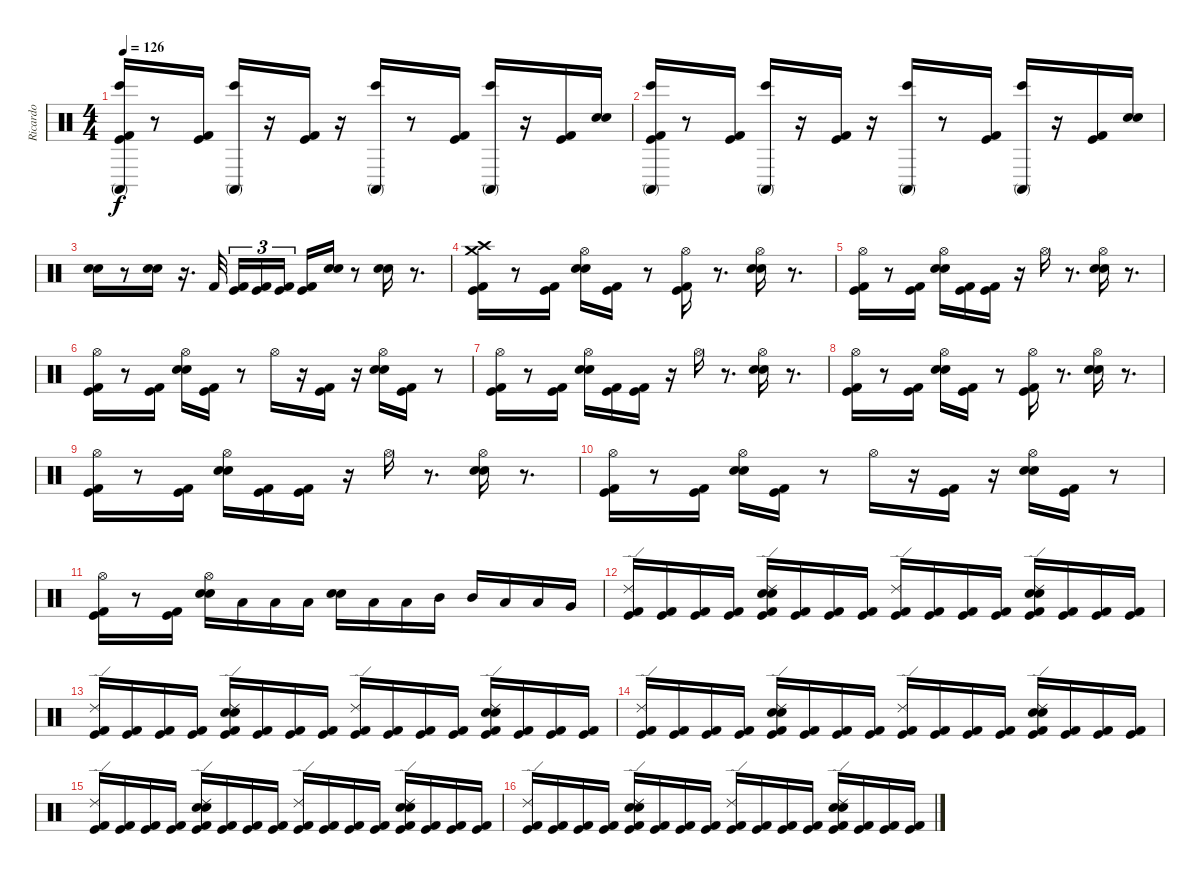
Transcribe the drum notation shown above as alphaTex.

\track ("Ricardo" "Ricardo") {instrument percussion}
\staff {score}
\articulation defaults
\ts (4 4)
\tempo 126
\clef neutral
\ks c
("Conga high (mute)" "Bongo High (hit)" "Kick (hit) 2" "Kick (hit)").16{dy f} r.8 ("Kick (hit) 2" "Kick (hit)").16 ("Conga high (mute)" "Bongo High (hit)").16 r.16 ("Kick (hit) 2" "Kick (hit)").16 r.16 ("Conga high (mute)" "Bongo High (hit)").16 r.8 ("Kick (hit) 2" "Kick (hit)").16 ("Conga high (mute)" "Bongo High (hit)").16 r.16 ("Kick (hit) 2" "Kick (hit)").16 ("Electric Snare (hit)" "Snare (hit) 2").16 |
("Conga high (mute)" "Bongo High (hit)" "Kick (hit) 2" "Kick (hit)").16 r.8 ("Kick (hit) 2" "Kick (hit)").16 ("Conga high (mute)" "Bongo High (hit)").16 r.16 ("Kick (hit) 2" "Kick (hit)").16 r.16 ("Conga high (mute)" "Bongo High (hit)").16 r.8 ("Kick (hit) 2" "Kick (hit)").16 ("Conga high (mute)" "Bongo High (hit)").16 r.16 ("Kick (hit) 2" "Kick (hit)").16 ("Electric Snare (hit)" "Snare (hit) 2").16 |
("Electric Snare (hit)" "Snare (hit) 2").16 r.8 ("Electric Snare (hit)" "Snare (hit) 2").16 r.16{d} "Kick (hit) 2".32 ("Kick (hit) 2" "Kick (hit)").16{tu (3 2)} ("Kick (hit) 2" "Kick (hit)").16{tu (3 2)} ("Kick (hit) 2" "Kick (hit)").16{tu (3 2)} ("Kick (hit) 2" "Kick (hit)").16 ("Electric Snare (hit)" "Snare (hit) 2").16 r.8 ("Electric Snare (hit)" "Snare (hit) 2").16 r.8{d} |
("Crash high (hit)" "Crash medium (hit)" "Kick (hit) 2" "Kick (hit)").16 r.8 ("Kick (hit) 2" "Kick (hit)").16 ("Hi-Hat (open)" "Electric Snare (hit)" "Snare (hit) 2").16 ("Kick (hit) 2" "Kick (hit)").16 r.8 ("Kick (hit) 2" "Kick (hit)" "Hi-Hat (open)").16 r.8{d} ("Electric Snare (hit)" "Snare (hit) 2" "Hi-Hat (open)").16 r.8{d} |
("Kick (hit) 2" "Hi-Hat (open)" "Kick (hit)").16 r.8 ("Kick (hit) 2" "Kick (hit)").16 ("Electric Snare (hit)" "Hi-Hat (open)" "Snare (hit) 2").16 ("Kick (hit) 2" "Kick (hit)").16 ("Kick (hit) 2" "Kick (hit)").16 r.16 "Hi-Hat (open)".16 r.8{d} ("Electric Snare (hit)" "Snare (hit) 2" "Hi-Hat (open)").16 r.8{d} |
("Hi-Hat (open)" "Kick (hit) 2" "Kick (hit)").16 r.8 ("Kick (hit) 2" "Kick (hit)").16 ("Hi-Hat (open)" "Electric Snare (hit)" "Snare (hit) 2").16 ("Kick (hit) 2" "Kick (hit)").16 r.8 "Hi-Hat (open)".16 r.16 ("Kick (hit) 2" "Kick (hit)").16 r.16 ("Hi-Hat (open)" "Electric Snare (hit)" "Snare (hit) 2").16 ("Kick (hit) 2" "Kick (hit)").16 r.8 |
("Kick (hit) 2" "Hi-Hat (open)" "Kick (hit)").16 r.8 ("Kick (hit) 2" "Kick (hit)").16 ("Electric Snare (hit)" "Hi-Hat (open)" "Snare (hit) 2").16 ("Kick (hit) 2" "Kick (hit)").16 ("Kick (hit) 2" "Kick (hit)").16 r.16 "Hi-Hat (open)".16 r.8{d} ("Electric Snare (hit)" "Snare (hit) 2" "Hi-Hat (open)").16 r.8{d} |
("Hi-Hat (open)" "Kick (hit) 2" "Kick (hit)").16 r.8 ("Kick (hit) 2" "Kick (hit)").16 ("Hi-Hat (open)" "Electric Snare (hit)" "Snare (hit) 2").16 ("Kick (hit) 2" "Kick (hit)").16 r.8 ("Kick (hit) 2" "Kick (hit)" "Hi-Hat (open)").16 r.8{d} ("Electric Snare (hit)" "Snare (hit) 2" "Hi-Hat (open)").16 r.8{d} |
("Kick (hit) 2" "Hi-Hat (open)" "Kick (hit)").16 r.8 ("Kick (hit) 2" "Kick (hit)").16 ("Electric Snare (hit)" "Hi-Hat (open)" "Snare (hit) 2").16 ("Kick (hit) 2" "Kick (hit)").16 ("Kick (hit) 2" "Kick (hit)").16 r.16 "Hi-Hat (open)".16 r.8{d} ("Electric Snare (hit)" "Snare (hit) 2" "Hi-Hat (open)").16 r.8{d} |
("Hi-Hat (open)" "Kick (hit) 2" "Kick (hit)").16 r.8 ("Kick (hit) 2" "Kick (hit)").16 ("Hi-Hat (open)" "Electric Snare (hit)" "Snare (hit) 2").16 ("Kick (hit) 2" "Kick (hit)").16 r.8 "Hi-Hat (open)".16 r.16 ("Kick (hit) 2" "Kick (hit)").16 r.16 ("Hi-Hat (open)" "Electric Snare (hit)" "Snare (hit) 2").16 ("Kick (hit) 2" "Kick (hit)").16 r.8 |
("Hi-Hat (open)" "Kick (hit) 2" "Kick (hit)").16 r.8 ("Kick (hit) 2" "Kick (hit)").16 ("Hi-Hat (open)" "Electric Snare (hit)" "Snare (hit) 2").16 "Low Tom (hit)".16 "Low Tom (hit)".16 "Low Tom (hit)".16 ("Electric Snare (hit)" "Snare (hit) 2").16 "Low Tom (hit)".16 "Low Tom (hit)".16 "Mid Tom (hit)".16 "Mid Tom (hit)".16 "Low Tom (hit)".16 "Low Tom (hit)".16 "Very Low Tom (hit)".16 |
("Kick (hit) 2" "Ride (edge) 2" "Kick (hit)").16 ("Kick (hit) 2" "Kick (hit)").16 ("Kick (hit) 2" "Kick (hit)").16 ("Kick (hit) 2" "Kick (hit)").16 ("Snare (hit) 2" "Kick (hit) 2" "Ride (edge) 2" "Electric Snare (hit)" "Kick (hit)").16 ("Kick (hit) 2" "Kick (hit)").16 ("Kick (hit) 2" "Kick (hit)").16 ("Kick (hit) 2" "Kick (hit)").16 ("Kick (hit) 2" "Ride (edge) 2" "Kick (hit)").16 ("Kick (hit) 2" "Kick (hit)").16 ("Kick (hit) 2" "Kick (hit)").16 ("Kick (hit) 2" "Kick (hit)").16 ("Snare (hit) 2" "Kick (hit) 2" "Ride (edge) 2" "Electric Snare (hit)" "Kick (hit)").16 ("Kick (hit) 2" "Kick (hit)").16 ("Kick (hit) 2" "Kick (hit)").16 ("Kick (hit) 2" "Kick (hit)").16 |
("Kick (hit) 2" "Ride (edge) 2" "Kick (hit)").16 ("Kick (hit) 2" "Kick (hit)").16 ("Kick (hit) 2" "Kick (hit)").16 ("Kick (hit) 2" "Kick (hit)").16 ("Snare (hit) 2" "Kick (hit) 2" "Ride (edge) 2" "Electric Snare (hit)" "Kick (hit)").16 ("Kick (hit) 2" "Kick (hit)").16 ("Kick (hit) 2" "Kick (hit)").16 ("Kick (hit) 2" "Kick (hit)").16 ("Kick (hit) 2" "Ride (edge) 2" "Kick (hit)").16 ("Kick (hit) 2" "Kick (hit)").16 ("Kick (hit) 2" "Kick (hit)").16 ("Kick (hit) 2" "Kick (hit)").16 ("Snare (hit) 2" "Kick (hit) 2" "Ride (edge) 2" "Electric Snare (hit)" "Kick (hit)").16 ("Kick (hit) 2" "Kick (hit)").16 ("Kick (hit) 2" "Kick (hit)").16 ("Kick (hit) 2" "Kick (hit)").16 |
("Kick (hit) 2" "Ride (edge) 2" "Kick (hit)").16 ("Kick (hit) 2" "Kick (hit)").16 ("Kick (hit) 2" "Kick (hit)").16 ("Kick (hit) 2" "Kick (hit)").16 ("Snare (hit) 2" "Kick (hit) 2" "Ride (edge) 2" "Electric Snare (hit)" "Kick (hit)").16 ("Kick (hit) 2" "Kick (hit)").16 ("Kick (hit) 2" "Kick (hit)").16 ("Kick (hit) 2" "Kick (hit)").16 ("Kick (hit) 2" "Ride (edge) 2" "Kick (hit)").16 ("Kick (hit) 2" "Kick (hit)").16 ("Kick (hit) 2" "Kick (hit)").16 ("Kick (hit) 2" "Kick (hit)").16 ("Snare (hit) 2" "Kick (hit) 2" "Ride (edge) 2" "Electric Snare (hit)" "Kick (hit)").16 ("Kick (hit) 2" "Kick (hit)").16 ("Kick (hit) 2" "Kick (hit)").16 ("Kick (hit) 2" "Kick (hit)").16 |
("Kick (hit) 2" "Ride (edge) 2" "Kick (hit)").16 ("Kick (hit) 2" "Kick (hit)").16 ("Kick (hit) 2" "Kick (hit)").16 ("Kick (hit) 2" "Kick (hit)").16 ("Snare (hit) 2" "Kick (hit) 2" "Ride (edge) 2" "Electric Snare (hit)" "Kick (hit)").16 ("Kick (hit) 2" "Kick (hit)").16 ("Kick (hit) 2" "Kick (hit)").16 ("Kick (hit) 2" "Kick (hit)").16 ("Kick (hit) 2" "Ride (edge) 2" "Kick (hit)").16 ("Kick (hit) 2" "Kick (hit)").16 ("Kick (hit) 2" "Kick (hit)").16 ("Kick (hit) 2" "Kick (hit)").16 ("Snare (hit) 2" "Kick (hit) 2" "Ride (edge) 2" "Electric Snare (hit)" "Kick (hit)").16 ("Kick (hit) 2" "Kick (hit)").16 ("Kick (hit) 2" "Kick (hit)").16 ("Kick (hit) 2" "Kick (hit)").16 |
("Kick (hit) 2" "Ride (edge) 2" "Kick (hit)").16 ("Kick (hit) 2" "Kick (hit)").16 ("Kick (hit) 2" "Kick (hit)").16 ("Kick (hit) 2" "Kick (hit)").16 ("Snare (hit) 2" "Kick (hit) 2" "Ride (edge) 2" "Electric Snare (hit)" "Kick (hit)").16 ("Kick (hit) 2" "Kick (hit)").16 ("Kick (hit) 2" "Kick (hit)").16 ("Kick (hit) 2" "Kick (hit)").16 ("Kick (hit) 2" "Ride (edge) 2" "Kick (hit)").16 ("Kick (hit) 2" "Kick (hit)").16 ("Kick (hit) 2" "Kick (hit)").16 ("Kick (hit) 2" "Kick (hit)").16 ("Snare (hit) 2" "Kick (hit) 2" "Ride (edge) 2" "Electric Snare (hit)" "Kick (hit)").16 ("Kick (hit) 2" "Kick (hit)").16 ("Kick (hit) 2" "Kick (hit)").16 ("Kick (hit) 2" "Kick (hit)").16
